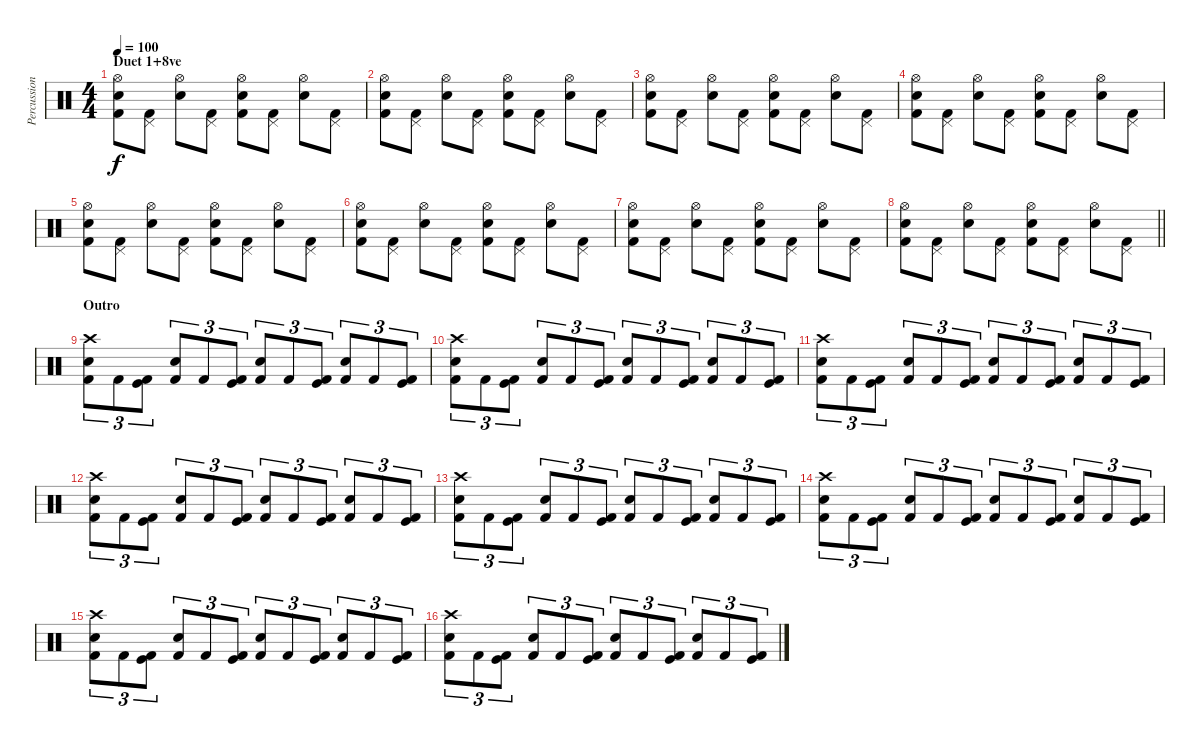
\track ("Percussion" "Percussion") {instrument percussion}
\staff {score}
\articulation defaults
\ts (4 4)
\section ("" "Duet 1+8ve")
\tempo 100
\clef neutral
\ks c
("Hi-Hat (open)" "Electric Snare (hit)" "Kick (hit) 2").8{dy f} ("Pedal Hi-Hat (hit)" "Kick (hit) 2").8 ("Hi-Hat (open)" "Electric Snare (hit)").8 ("Pedal Hi-Hat (hit)" "Kick (hit) 2").8 ("Hi-Hat (open)" "Electric Snare (hit)" "Kick (hit) 2").8 ("Pedal Hi-Hat (hit)" "Kick (hit) 2").8 ("Hi-Hat (open)" "Electric Snare (hit)").8 ("Pedal Hi-Hat (hit)" "Kick (hit) 2").8 |
("Hi-Hat (open)" "Electric Snare (hit)" "Kick (hit) 2").8 ("Pedal Hi-Hat (hit)" "Kick (hit) 2").8 ("Hi-Hat (open)" "Electric Snare (hit)").8 ("Pedal Hi-Hat (hit)" "Kick (hit) 2").8 ("Hi-Hat (open)" "Electric Snare (hit)" "Kick (hit) 2").8 ("Pedal Hi-Hat (hit)" "Kick (hit) 2").8 ("Hi-Hat (open)" "Electric Snare (hit)").8 ("Pedal Hi-Hat (hit)" "Kick (hit) 2").8 |
("Hi-Hat (open)" "Electric Snare (hit)" "Kick (hit) 2").8 ("Pedal Hi-Hat (hit)" "Kick (hit) 2").8 ("Hi-Hat (open)" "Electric Snare (hit)").8 ("Pedal Hi-Hat (hit)" "Kick (hit) 2").8 ("Hi-Hat (open)" "Electric Snare (hit)" "Kick (hit) 2").8 ("Pedal Hi-Hat (hit)" "Kick (hit) 2").8 ("Hi-Hat (open)" "Electric Snare (hit)").8 ("Pedal Hi-Hat (hit)" "Kick (hit) 2").8 |
("Hi-Hat (open)" "Electric Snare (hit)" "Kick (hit) 2").8 ("Pedal Hi-Hat (hit)" "Kick (hit) 2").8 ("Hi-Hat (open)" "Electric Snare (hit)").8 ("Pedal Hi-Hat (hit)" "Kick (hit) 2").8 ("Hi-Hat (open)" "Electric Snare (hit)" "Kick (hit) 2").8 ("Pedal Hi-Hat (hit)" "Kick (hit) 2").8 ("Hi-Hat (open)" "Electric Snare (hit)").8 ("Pedal Hi-Hat (hit)" "Kick (hit) 2").8 |
("Hi-Hat (open)" "Electric Snare (hit)" "Kick (hit) 2").8 ("Pedal Hi-Hat (hit)" "Kick (hit) 2").8 ("Hi-Hat (open)" "Electric Snare (hit)").8 ("Pedal Hi-Hat (hit)" "Kick (hit) 2").8 ("Hi-Hat (open)" "Electric Snare (hit)" "Kick (hit) 2").8 ("Pedal Hi-Hat (hit)" "Kick (hit) 2").8 ("Hi-Hat (open)" "Electric Snare (hit)").8 ("Pedal Hi-Hat (hit)" "Kick (hit) 2").8 |
("Hi-Hat (open)" "Electric Snare (hit)" "Kick (hit) 2").8 ("Pedal Hi-Hat (hit)" "Kick (hit) 2").8 ("Hi-Hat (open)" "Electric Snare (hit)").8 ("Pedal Hi-Hat (hit)" "Kick (hit) 2").8 ("Hi-Hat (open)" "Electric Snare (hit)" "Kick (hit) 2").8 ("Pedal Hi-Hat (hit)" "Kick (hit) 2").8 ("Hi-Hat (open)" "Electric Snare (hit)").8 ("Pedal Hi-Hat (hit)" "Kick (hit) 2").8 |
("Hi-Hat (open)" "Electric Snare (hit)" "Kick (hit) 2").8 ("Pedal Hi-Hat (hit)" "Kick (hit) 2").8 ("Hi-Hat (open)" "Electric Snare (hit)").8 ("Pedal Hi-Hat (hit)" "Kick (hit) 2").8 ("Hi-Hat (open)" "Electric Snare (hit)" "Kick (hit) 2").8 ("Pedal Hi-Hat (hit)" "Kick (hit) 2").8 ("Hi-Hat (open)" "Electric Snare (hit)").8 ("Pedal Hi-Hat (hit)" "Kick (hit) 2").8 |
\barLineRight lightlight
("Hi-Hat (open)" "Electric Snare (hit)" "Kick (hit) 2").8 ("Pedal Hi-Hat (hit)" "Kick (hit) 2").8 ("Hi-Hat (open)" "Electric Snare (hit)").8 ("Pedal Hi-Hat (hit)" "Kick (hit) 2").8 ("Hi-Hat (open)" "Electric Snare (hit)" "Kick (hit) 2").8 ("Pedal Hi-Hat (hit)" "Kick (hit) 2").8 ("Hi-Hat (open)" "Electric Snare (hit)").8 ("Pedal Hi-Hat (hit)" "Kick (hit) 2").8 |
\section ("" "Outro")
("Crash high (hit)" "Electric Snare (hit)" "Kick (hit) 2").8{tu (3 2)} "Kick (hit) 2".8{tu (3 2)} ("Kick (hit)" "Kick (hit) 2").8{tu (3 2)} ("Electric Snare (hit)" "Kick (hit) 2").8{tu (3 2)} "Kick (hit) 2".8{tu (3 2)} ("Kick (hit)" "Kick (hit) 2").8{tu (3 2)} ("Electric Snare (hit)" "Kick (hit) 2").8{tu (3 2)} "Kick (hit) 2".8{tu (3 2)} ("Kick (hit)" "Kick (hit) 2").8{tu (3 2)} ("Electric Snare (hit)" "Kick (hit) 2").8{tu (3 2)} "Kick (hit) 2".8{tu (3 2)} ("Kick (hit)" "Kick (hit) 2").8{tu (3 2)} |
("Crash high (hit)" "Electric Snare (hit)" "Kick (hit) 2").8{tu (3 2)} "Kick (hit) 2".8{tu (3 2)} ("Kick (hit)" "Kick (hit) 2").8{tu (3 2)} ("Electric Snare (hit)" "Kick (hit) 2").8{tu (3 2)} "Kick (hit) 2".8{tu (3 2)} ("Kick (hit)" "Kick (hit) 2").8{tu (3 2)} ("Electric Snare (hit)" "Kick (hit) 2").8{tu (3 2)} "Kick (hit) 2".8{tu (3 2)} ("Kick (hit)" "Kick (hit) 2").8{tu (3 2)} ("Electric Snare (hit)" "Kick (hit) 2").8{tu (3 2)} "Kick (hit) 2".8{tu (3 2)} ("Kick (hit)" "Kick (hit) 2").8{tu (3 2)} |
("Crash high (hit)" "Electric Snare (hit)" "Kick (hit) 2").8{tu (3 2)} "Kick (hit) 2".8{tu (3 2)} ("Kick (hit)" "Kick (hit) 2").8{tu (3 2)} ("Electric Snare (hit)" "Kick (hit) 2").8{tu (3 2)} "Kick (hit) 2".8{tu (3 2)} ("Kick (hit)" "Kick (hit) 2").8{tu (3 2)} ("Electric Snare (hit)" "Kick (hit) 2").8{tu (3 2)} "Kick (hit) 2".8{tu (3 2)} ("Kick (hit)" "Kick (hit) 2").8{tu (3 2)} ("Electric Snare (hit)" "Kick (hit) 2").8{tu (3 2)} "Kick (hit) 2".8{tu (3 2)} ("Kick (hit)" "Kick (hit) 2").8{tu (3 2)} |
("Crash high (hit)" "Electric Snare (hit)" "Kick (hit) 2").8{tu (3 2)} "Kick (hit) 2".8{tu (3 2)} ("Kick (hit)" "Kick (hit) 2").8{tu (3 2)} ("Electric Snare (hit)" "Kick (hit) 2").8{tu (3 2)} "Kick (hit) 2".8{tu (3 2)} ("Kick (hit)" "Kick (hit) 2").8{tu (3 2)} ("Electric Snare (hit)" "Kick (hit) 2").8{tu (3 2)} "Kick (hit) 2".8{tu (3 2)} ("Kick (hit)" "Kick (hit) 2").8{tu (3 2)} ("Electric Snare (hit)" "Kick (hit) 2").8{tu (3 2)} "Kick (hit) 2".8{tu (3 2)} ("Kick (hit)" "Kick (hit) 2").8{tu (3 2)} |
("Crash high (hit)" "Electric Snare (hit)" "Kick (hit) 2").8{tu (3 2)} "Kick (hit) 2".8{tu (3 2)} ("Kick (hit)" "Kick (hit) 2").8{tu (3 2)} ("Electric Snare (hit)" "Kick (hit) 2").8{tu (3 2)} "Kick (hit) 2".8{tu (3 2)} ("Kick (hit)" "Kick (hit) 2").8{tu (3 2)} ("Electric Snare (hit)" "Kick (hit) 2").8{tu (3 2)} "Kick (hit) 2".8{tu (3 2)} ("Kick (hit)" "Kick (hit) 2").8{tu (3 2)} ("Electric Snare (hit)" "Kick (hit) 2").8{tu (3 2)} "Kick (hit) 2".8{tu (3 2)} ("Kick (hit)" "Kick (hit) 2").8{tu (3 2)} |
("Crash high (hit)" "Electric Snare (hit)" "Kick (hit) 2").8{tu (3 2)} "Kick (hit) 2".8{tu (3 2)} ("Kick (hit)" "Kick (hit) 2").8{tu (3 2)} ("Electric Snare (hit)" "Kick (hit) 2").8{tu (3 2)} "Kick (hit) 2".8{tu (3 2)} ("Kick (hit)" "Kick (hit) 2").8{tu (3 2)} ("Electric Snare (hit)" "Kick (hit) 2").8{tu (3 2)} "Kick (hit) 2".8{tu (3 2)} ("Kick (hit)" "Kick (hit) 2").8{tu (3 2)} ("Electric Snare (hit)" "Kick (hit) 2").8{tu (3 2)} "Kick (hit) 2".8{tu (3 2)} ("Kick (hit)" "Kick (hit) 2").8{tu (3 2)} |
("Crash high (hit)" "Electric Snare (hit)" "Kick (hit) 2").8{tu (3 2)} "Kick (hit) 2".8{tu (3 2)} ("Kick (hit)" "Kick (hit) 2").8{tu (3 2)} ("Electric Snare (hit)" "Kick (hit) 2").8{tu (3 2)} "Kick (hit) 2".8{tu (3 2)} ("Kick (hit)" "Kick (hit) 2").8{tu (3 2)} ("Electric Snare (hit)" "Kick (hit) 2").8{tu (3 2)} "Kick (hit) 2".8{tu (3 2)} ("Kick (hit)" "Kick (hit) 2").8{tu (3 2)} ("Electric Snare (hit)" "Kick (hit) 2").8{tu (3 2)} "Kick (hit) 2".8{tu (3 2)} ("Kick (hit)" "Kick (hit) 2").8{tu (3 2)} |
("Crash high (hit)" "Electric Snare (hit)" "Kick (hit) 2").8{tu (3 2)} "Kick (hit) 2".8{tu (3 2)} ("Kick (hit)" "Kick (hit) 2").8{tu (3 2)} ("Electric Snare (hit)" "Kick (hit) 2").8{tu (3 2)} "Kick (hit) 2".8{tu (3 2)} ("Kick (hit)" "Kick (hit) 2").8{tu (3 2)} ("Electric Snare (hit)" "Kick (hit) 2").8{tu (3 2)} "Kick (hit) 2".8{tu (3 2)} ("Kick (hit)" "Kick (hit) 2").8{tu (3 2)} ("Electric Snare (hit)" "Kick (hit) 2").8{tu (3 2)} "Kick (hit) 2".8{tu (3 2)} ("Kick (hit)" "Kick (hit) 2").8{tu (3 2)}
